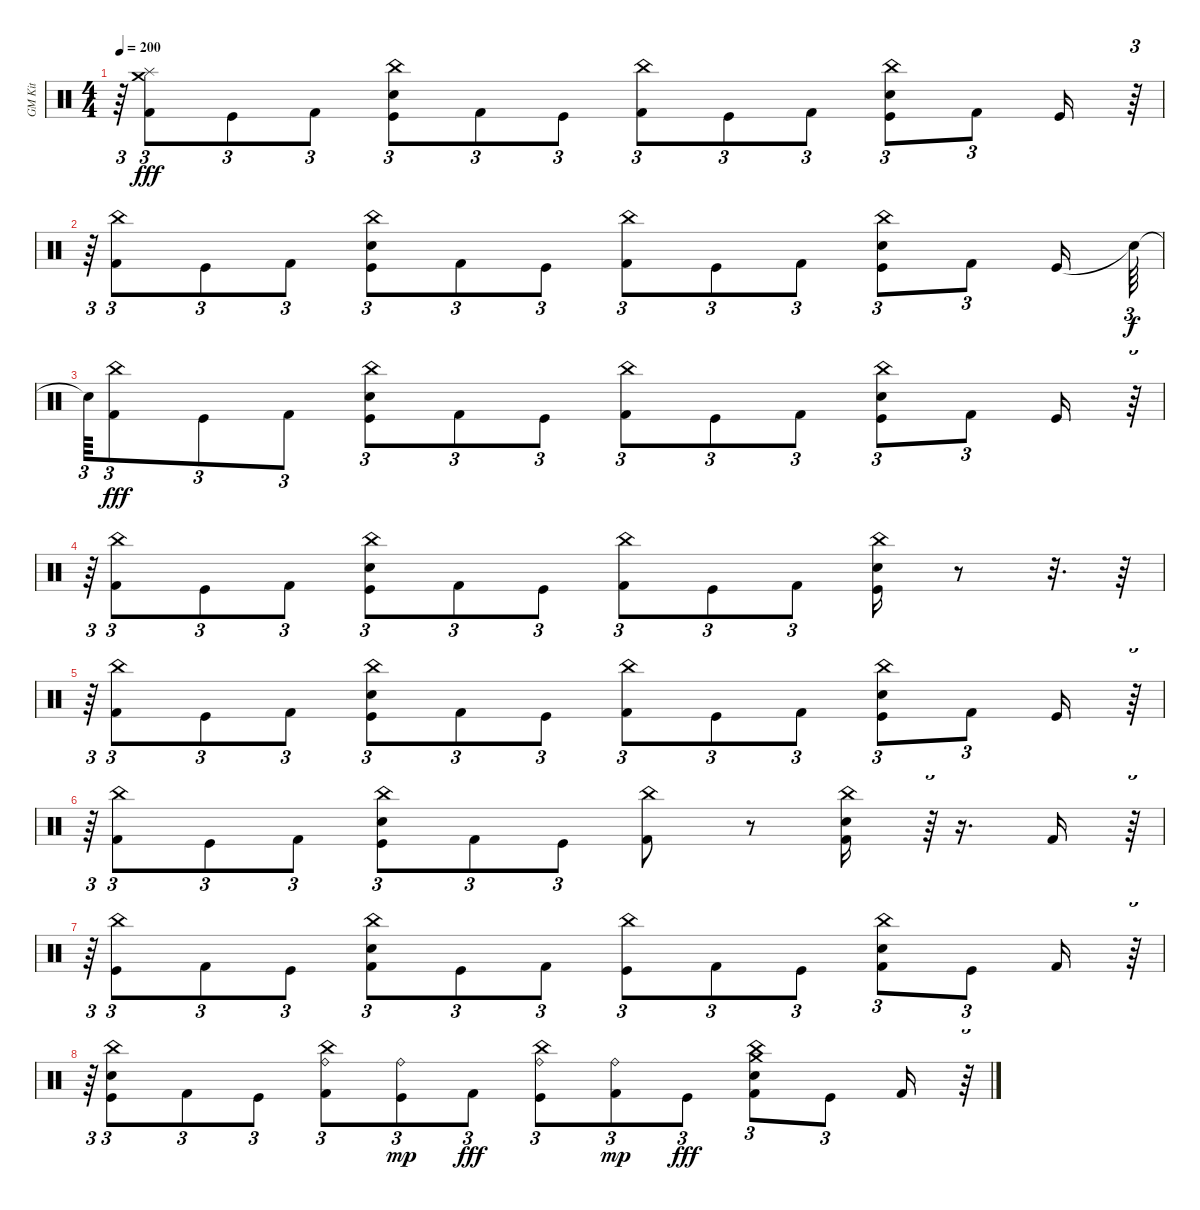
\track ("GM Kit" "GM Kit") {instrument percussion}
\staff {score}
\articulation defaults
\ts (4 4)
\tempo 200
\clef neutral
\ks c
r.64{tu (3 2) dy fff} ("Kick (hit) 2" "Splash (hit)" "Crash medium (hit)").8{tu (3 2)} "Kick (hit)".8{tu (3 2)} "Kick (hit) 2".8{tu (3 2)} ("Kick (hit)" "Snare (hit) 2" "China (hit)").8{tu (3 2)} "Kick (hit) 2".8{tu (3 2)} "Kick (hit)".8{tu (3 2)} ("Kick (hit) 2" "China (hit)").8{tu (3 2)} "Kick (hit)".8{tu (3 2)} "Kick (hit) 2".8{tu (3 2)} ("Kick (hit)" "Snare (hit) 2" "China (hit)").8{tu (3 2)} "Kick (hit) 2".8{tu (3 2)} "Kick (hit)".16 r.64{tu (3 2)} |
r.64{tu (3 2)} ("Kick (hit) 2" "China (hit)").8{tu (3 2)} "Kick (hit)".8{tu (3 2)} "Kick (hit) 2".8{tu (3 2)} ("Kick (hit)" "Snare (hit) 2" "China (hit)").8{tu (3 2)} "Kick (hit) 2".8{tu (3 2)} "Kick (hit)".8{tu (3 2)} ("Kick (hit) 2" "China (hit)").8{tu (3 2)} "Kick (hit)".8{tu (3 2)} "Kick (hit) 2".8{tu (3 2)} ("Kick (hit)" "Snare (hit) 2" "China (hit)").8{tu (3 2)} "Kick (hit) 2".8{tu (3 2)} "Kick (hit)".16 "Snare (hit)"{t}.64{tu (3 2) dy f} |
"Snare (hit)"{t}.64{tu (3 2)} ("Kick (hit) 2" "China (hit)").8{tu (3 2) dy fff} "Kick (hit)".8{tu (3 2)} "Kick (hit) 2".8{tu (3 2)} ("Kick (hit)" "Snare (hit) 2" "China (hit)").8{tu (3 2)} "Kick (hit) 2".8{tu (3 2)} "Kick (hit)".8{tu (3 2)} ("Kick (hit) 2" "China (hit)").8{tu (3 2)} "Kick (hit)".8{tu (3 2)} "Kick (hit) 2".8{tu (3 2)} ("Kick (hit)" "Snare (hit) 2" "China (hit)").8{tu (3 2)} "Kick (hit) 2".8{tu (3 2)} "Kick (hit)".16 r.64{tu (3 2)} |
r.64{tu (3 2)} ("Kick (hit) 2" "China (hit)").8{tu (3 2)} "Kick (hit)".8{tu (3 2)} "Kick (hit) 2".8{tu (3 2)} ("Kick (hit)" "Snare (hit) 2" "China (hit)").8{tu (3 2)} "Kick (hit) 2".8{tu (3 2)} "Kick (hit)".8{tu (3 2)} ("Kick (hit) 2" "China (hit)").8{tu (3 2)} "Kick (hit)".8{tu (3 2)} "Kick (hit) 2".8{tu (3 2)} ("Kick (hit)" "Snare (hit) 2" "China (hit)").16 r.8 r.32{d} r.64 |
r.64{tu (3 2)} ("Kick (hit) 2" "China (hit)").8{tu (3 2)} "Kick (hit)".8{tu (3 2)} "Kick (hit) 2".8{tu (3 2)} ("Kick (hit)" "Snare (hit) 2" "China (hit)").8{tu (3 2)} "Kick (hit) 2".8{tu (3 2)} "Kick (hit)".8{tu (3 2)} ("Kick (hit) 2" "China (hit)").8{tu (3 2)} "Kick (hit)".8{tu (3 2)} "Kick (hit) 2".8{tu (3 2)} ("Kick (hit)" "Snare (hit) 2" "China (hit)").8{tu (3 2)} "Kick (hit) 2".8{tu (3 2)} "Kick (hit)".16 r.64{tu (3 2)} |
r.64{tu (3 2)} ("Kick (hit) 2" "China (hit)").8{tu (3 2)} "Kick (hit)".8{tu (3 2)} "Kick (hit) 2".8{tu (3 2)} ("Kick (hit)" "Snare (hit) 2" "China (hit)").8{tu (3 2)} "Kick (hit) 2".8{tu (3 2)} "Kick (hit)".8{tu (3 2)} ("Kick (hit) 2" "China (hit)").8 r.8 ("Kick (hit) 2" "Snare (hit) 2" "China (hit)").16 r.64{tu (3 2)} r.16{d} "Kick (hit) 2".16 r.64{tu (3 2)} |
r.64{tu (3 2)} ("Kick (hit)" "China (hit)").8{tu (3 2)} "Kick (hit) 2".8{tu (3 2)} "Kick (hit)".8{tu (3 2)} ("Kick (hit) 2" "Snare (hit) 2" "China (hit)").8{tu (3 2)} "Kick (hit)".8{tu (3 2)} "Kick (hit) 2".8{tu (3 2)} ("Kick (hit)" "China (hit)").8{tu (3 2)} "Kick (hit) 2".8{tu (3 2)} "Kick (hit)".8{tu (3 2)} ("Kick (hit) 2" "Snare (hit) 2" "China (hit)").8{tu (3 2)} "Kick (hit)".8{tu (3 2)} "Kick (hit) 2".16 r.64{tu (3 2)} |
r.64{tu (3 2)} ("Kick (hit)" "Snare (hit) 2" "China (hit)").8{tu (3 2)} "Kick (hit) 2".8{tu (3 2)} "Kick (hit)".8{tu (3 2)} ("Kick (hit) 2" "China (hit)" "Ride (bell)").8{tu (3 2)} ("Kick (hit)" "Ride (bell)").8{tu (3 2) dy mp} "Kick (hit) 2".8{tu (3 2) dy fff} ("Kick (hit)" "China (hit)" "Ride (bell)").8{tu (3 2)} ("Kick (hit) 2" "Ride (bell)").8{tu (3 2) dy mp} "Kick (hit)".8{tu (3 2) dy fff} ("Kick (hit) 2" "Snare (hit) 2" "China (hit)" "Crash medium (hit)").8{tu (3 2)} "Kick (hit)".8{tu (3 2)} "Kick (hit) 2".16 r.64{tu (3 2)}
